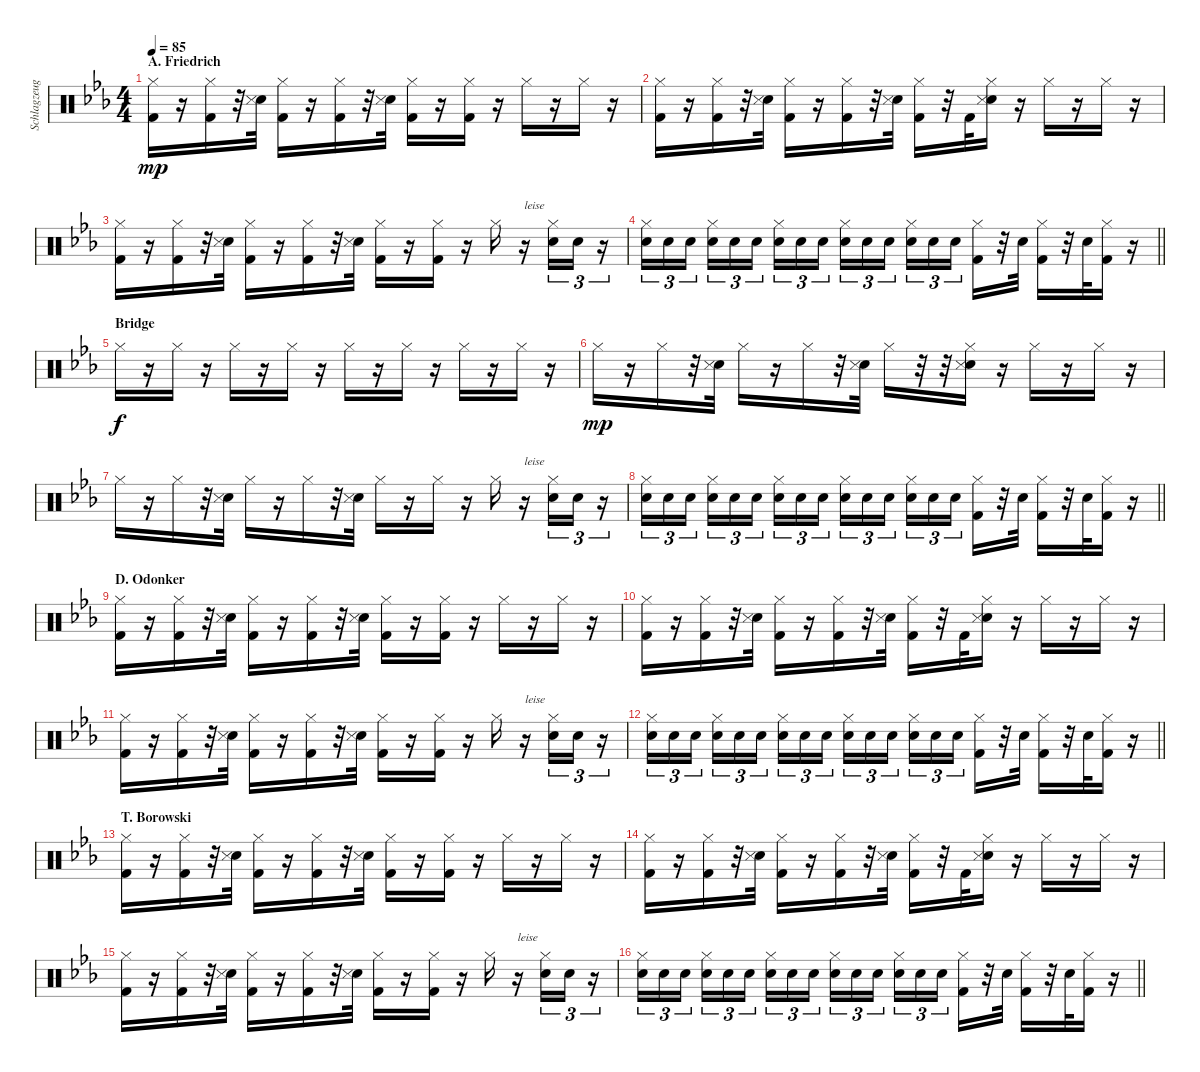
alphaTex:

\track ("Schlagzeug" "Schlagzeug") {instrument percussion}
\staff {score}
\articulation defaults
\ts (4 4)
\section ("" "A. Friedrich")
\tempo 85
\clef neutral
\ks cminor
("Hi-Hat (closed)" "Kick (hit) 2").16{dy mp} r.16 ("Hi-Hat (closed)" "Kick (hit) 2").16 r.32 ("Electric Snare (hit)" "Snare (side stick) 3").32 ("Hi-Hat (closed)" "Kick (hit) 2").16 r.16 ("Hi-Hat (closed)" "Kick (hit) 2").16 r.32 ("Electric Snare (hit)" "Snare (side stick) 3").32 ("Hi-Hat (closed)" "Kick (hit) 2").16 r.16 ("Hi-Hat (closed)" "Kick (hit) 2").16 r.16 "Hi-Hat (closed)".16 r.16 "Hi-Hat (closed)".16 r.16 |
("Hi-Hat (closed)" "Kick (hit) 2").16 r.16 ("Hi-Hat (closed)" "Kick (hit) 2").16 r.32 ("Electric Snare (hit)" "Snare (side stick) 3").32 ("Hi-Hat (closed)" "Kick (hit) 2").16 r.16 ("Hi-Hat (closed)" "Kick (hit) 2").16 r.32 ("Electric Snare (hit)" "Snare (side stick) 3").32 ("Hi-Hat (closed)" "Kick (hit) 2").16 r.32 "Kick (hit) 2".32 ("Hi-Hat (closed)" "Electric Snare (hit)" "Snare (side stick) 3").16 r.16 "Hi-Hat (closed)".16 r.16 "Hi-Hat (closed)".16 r.16 |
("Hi-Hat (closed)" "Kick (hit) 2").16 r.16 ("Hi-Hat (closed)" "Kick (hit) 2").16 r.32 ("Electric Snare (hit)" "Snare (side stick) 3").32 ("Hi-Hat (closed)" "Kick (hit) 2").16 r.16 ("Hi-Hat (closed)" "Kick (hit) 2").16 r.32 ("Electric Snare (hit)" "Snare (side stick) 3").32 ("Hi-Hat (closed)" "Kick (hit) 2").16 r.16 ("Hi-Hat (closed)" "Kick (hit) 2").16 r.16 "Hi-Hat (closed)".16 r.16{txt "leise" volume 5} ("Hi-Hat (closed)" "Electric Snare (hit)").16{tu (3 2)} "Electric Snare (hit)".16{tu (3 2)} r.16{tu (3 2)} |
\barLineRight lightlight
("Hi-Hat (closed)" "Electric Snare (hit)").16{tu (3 2) volume 15} "Electric Snare (hit)".16{tu (3 2)} "Electric Snare (hit)".16{tu (3 2) beam splitsecondary} ("Hi-Hat (closed)" "Electric Snare (hit)").16{tu (3 2)} "Electric Snare (hit)".16{tu (3 2)} "Electric Snare (hit)".16{tu (3 2)} ("Hi-Hat (closed)" "Electric Snare (hit)").16{tu (3 2)} "Electric Snare (hit)".16{tu (3 2)} "Electric Snare (hit)".16{tu (3 2) beam splitsecondary} ("Hi-Hat (closed)" "Electric Snare (hit)").16{tu (3 2)} "Electric Snare (hit)".16{tu (3 2)} "Electric Snare (hit)".16{tu (3 2)} ("Hi-Hat (closed)" "Electric Snare (hit)").16{tu (3 2)} "Electric Snare (hit)".16{tu (3 2)} "Electric Snare (hit)".16{tu (3 2) beam splitsecondary} ("Hi-Hat (closed)" "Kick (hit) 2").16 r.32 "Electric Snare (hit)".32 ("Hi-Hat (closed)" "Kick (hit) 2").16 r.32 "Electric Snare (hit)".32 ("Hi-Hat (closed)" "Kick (hit) 2").16 r.16 |
\section ("" "Bridge")
"Hi-Hat (closed)".16{dy f} r.16 "Hi-Hat (closed)".16 r.16 "Hi-Hat (closed)".16 r.16 "Hi-Hat (closed)".16 r.16 "Hi-Hat (closed)".16 r.16 "Hi-Hat (closed)".16 r.16 "Hi-Hat (closed)".16 r.16 "Hi-Hat (closed)".16 r.16 |
"Hi-Hat (closed)".16{dy mp} r.16 "Hi-Hat (closed)".16 r.32 ("Electric Snare (hit)" "Snare (side stick) 3").32 "Hi-Hat (closed)".16 r.16 "Hi-Hat (closed)".16 r.32 ("Electric Snare (hit)" "Snare (side stick) 3").32 "Hi-Hat (closed)".16 r.32 r.32 ("Hi-Hat (closed)" "Electric Snare (hit)" "Snare (side stick) 3").16 r.16 "Hi-Hat (closed)".16 r.16 "Hi-Hat (closed)".16 r.16 |
"Hi-Hat (closed)".16 r.16 "Hi-Hat (closed)".16 r.32 ("Electric Snare (hit)" "Snare (side stick) 3").32 "Hi-Hat (closed)".16 r.16 "Hi-Hat (closed)".16 r.32 ("Electric Snare (hit)" "Snare (side stick) 3").32 "Hi-Hat (closed)".16 r.16 "Hi-Hat (closed)".16 r.16 "Hi-Hat (closed)".16 r.16{txt "leise" volume 5} ("Hi-Hat (closed)" "Electric Snare (hit)").16{tu (3 2)} "Electric Snare (hit)".16{tu (3 2)} r.16{tu (3 2)} |
\barLineRight lightlight
("Hi-Hat (closed)" "Electric Snare (hit)").16{tu (3 2) volume 15} "Electric Snare (hit)".16{tu (3 2)} "Electric Snare (hit)".16{tu (3 2) beam splitsecondary} ("Hi-Hat (closed)" "Electric Snare (hit)").16{tu (3 2)} "Electric Snare (hit)".16{tu (3 2)} "Electric Snare (hit)".16{tu (3 2)} ("Hi-Hat (closed)" "Electric Snare (hit)").16{tu (3 2)} "Electric Snare (hit)".16{tu (3 2)} "Electric Snare (hit)".16{tu (3 2) beam splitsecondary} ("Hi-Hat (closed)" "Electric Snare (hit)").16{tu (3 2)} "Electric Snare (hit)".16{tu (3 2)} "Electric Snare (hit)".16{tu (3 2)} ("Hi-Hat (closed)" "Electric Snare (hit)").16{tu (3 2)} "Electric Snare (hit)".16{tu (3 2)} "Electric Snare (hit)".16{tu (3 2) beam splitsecondary} ("Hi-Hat (closed)" "Kick (hit) 2").16 r.32 "Electric Snare (hit)".32 ("Hi-Hat (closed)" "Kick (hit) 2").16 r.32 "Electric Snare (hit)".32 ("Hi-Hat (closed)" "Kick (hit) 2").16 r.16 |
\section ("" "D. Odonker")
("Hi-Hat (closed)" "Kick (hit) 2").16 r.16 ("Hi-Hat (closed)" "Kick (hit) 2").16 r.32 ("Electric Snare (hit)" "Snare (side stick) 3").32 ("Hi-Hat (closed)" "Kick (hit) 2").16 r.16 ("Hi-Hat (closed)" "Kick (hit) 2").16 r.32 ("Electric Snare (hit)" "Snare (side stick) 3").32 ("Hi-Hat (closed)" "Kick (hit) 2").16 r.16 ("Hi-Hat (closed)" "Kick (hit) 2").16 r.16 "Hi-Hat (closed)".16 r.16 "Hi-Hat (closed)".16 r.16 |
("Hi-Hat (closed)" "Kick (hit) 2").16 r.16 ("Hi-Hat (closed)" "Kick (hit) 2").16 r.32 ("Electric Snare (hit)" "Snare (side stick) 3").32 ("Hi-Hat (closed)" "Kick (hit) 2").16 r.16 ("Hi-Hat (closed)" "Kick (hit) 2").16 r.32 ("Electric Snare (hit)" "Snare (side stick) 3").32 ("Hi-Hat (closed)" "Kick (hit) 2").16 r.32 "Kick (hit) 2".32 ("Hi-Hat (closed)" "Electric Snare (hit)" "Snare (side stick) 3").16 r.16 "Hi-Hat (closed)".16 r.16 "Hi-Hat (closed)".16 r.16 |
("Hi-Hat (closed)" "Kick (hit) 2").16 r.16 ("Hi-Hat (closed)" "Kick (hit) 2").16 r.32 ("Electric Snare (hit)" "Snare (side stick) 3").32 ("Hi-Hat (closed)" "Kick (hit) 2").16 r.16 ("Hi-Hat (closed)" "Kick (hit) 2").16 r.32 ("Electric Snare (hit)" "Snare (side stick) 3").32 ("Hi-Hat (closed)" "Kick (hit) 2").16 r.16 ("Hi-Hat (closed)" "Kick (hit) 2").16 r.16 "Hi-Hat (closed)".16 r.16{txt "leise" volume 5} ("Hi-Hat (closed)" "Electric Snare (hit)").16{tu (3 2)} "Electric Snare (hit)".16{tu (3 2)} r.16{tu (3 2)} |
\barLineRight lightlight
("Hi-Hat (closed)" "Electric Snare (hit)").16{tu (3 2) volume 15} "Electric Snare (hit)".16{tu (3 2)} "Electric Snare (hit)".16{tu (3 2) beam splitsecondary} ("Hi-Hat (closed)" "Electric Snare (hit)").16{tu (3 2)} "Electric Snare (hit)".16{tu (3 2)} "Electric Snare (hit)".16{tu (3 2)} ("Hi-Hat (closed)" "Electric Snare (hit)").16{tu (3 2)} "Electric Snare (hit)".16{tu (3 2)} "Electric Snare (hit)".16{tu (3 2) beam splitsecondary} ("Hi-Hat (closed)" "Electric Snare (hit)").16{tu (3 2)} "Electric Snare (hit)".16{tu (3 2)} "Electric Snare (hit)".16{tu (3 2)} ("Hi-Hat (closed)" "Electric Snare (hit)").16{tu (3 2)} "Electric Snare (hit)".16{tu (3 2)} "Electric Snare (hit)".16{tu (3 2) beam splitsecondary} ("Hi-Hat (closed)" "Kick (hit) 2").16 r.32 "Electric Snare (hit)".32 ("Hi-Hat (closed)" "Kick (hit) 2").16 r.32 "Electric Snare (hit)".32 ("Hi-Hat (closed)" "Kick (hit) 2").16 r.16 |
\section ("" "T. Borowski")
("Hi-Hat (closed)" "Kick (hit) 2").16 r.16 ("Hi-Hat (closed)" "Kick (hit) 2").16 r.32 ("Electric Snare (hit)" "Snare (side stick) 3").32 ("Hi-Hat (closed)" "Kick (hit) 2").16 r.16 ("Hi-Hat (closed)" "Kick (hit) 2").16 r.32 ("Electric Snare (hit)" "Snare (side stick) 3").32 ("Hi-Hat (closed)" "Kick (hit) 2").16 r.16 ("Hi-Hat (closed)" "Kick (hit) 2").16 r.16 "Hi-Hat (closed)".16 r.16 "Hi-Hat (closed)".16 r.16 |
("Hi-Hat (closed)" "Kick (hit) 2").16 r.16 ("Hi-Hat (closed)" "Kick (hit) 2").16 r.32 ("Electric Snare (hit)" "Snare (side stick) 3").32 ("Hi-Hat (closed)" "Kick (hit) 2").16 r.16 ("Hi-Hat (closed)" "Kick (hit) 2").16 r.32 ("Electric Snare (hit)" "Snare (side stick) 3").32 ("Hi-Hat (closed)" "Kick (hit) 2").16 r.32 "Kick (hit) 2".32 ("Hi-Hat (closed)" "Electric Snare (hit)" "Snare (side stick) 3").16 r.16 "Hi-Hat (closed)".16 r.16 "Hi-Hat (closed)".16 r.16 |
("Hi-Hat (closed)" "Kick (hit) 2").16 r.16 ("Hi-Hat (closed)" "Kick (hit) 2").16 r.32 ("Electric Snare (hit)" "Snare (side stick) 3").32 ("Hi-Hat (closed)" "Kick (hit) 2").16 r.16 ("Hi-Hat (closed)" "Kick (hit) 2").16 r.32 ("Electric Snare (hit)" "Snare (side stick) 3").32 ("Hi-Hat (closed)" "Kick (hit) 2").16 r.16 ("Hi-Hat (closed)" "Kick (hit) 2").16 r.16 "Hi-Hat (closed)".16 r.16{txt "leise" volume 5} ("Hi-Hat (closed)" "Electric Snare (hit)").16{tu (3 2)} "Electric Snare (hit)".16{tu (3 2)} r.16{tu (3 2)} |
\barLineRight lightlight
("Hi-Hat (closed)" "Electric Snare (hit)").16{tu (3 2) volume 15} "Electric Snare (hit)".16{tu (3 2)} "Electric Snare (hit)".16{tu (3 2) beam splitsecondary} ("Hi-Hat (closed)" "Electric Snare (hit)").16{tu (3 2)} "Electric Snare (hit)".16{tu (3 2)} "Electric Snare (hit)".16{tu (3 2)} ("Hi-Hat (closed)" "Electric Snare (hit)").16{tu (3 2)} "Electric Snare (hit)".16{tu (3 2)} "Electric Snare (hit)".16{tu (3 2) beam splitsecondary} ("Hi-Hat (closed)" "Electric Snare (hit)").16{tu (3 2)} "Electric Snare (hit)".16{tu (3 2)} "Electric Snare (hit)".16{tu (3 2)} ("Hi-Hat (closed)" "Electric Snare (hit)").16{tu (3 2)} "Electric Snare (hit)".16{tu (3 2)} "Electric Snare (hit)".16{tu (3 2) beam splitsecondary} ("Hi-Hat (closed)" "Kick (hit) 2").16 r.32 "Electric Snare (hit)".32 ("Hi-Hat (closed)" "Kick (hit) 2").16 r.32 "Electric Snare (hit)".32 ("Hi-Hat (closed)" "Kick (hit) 2").16 r.16
